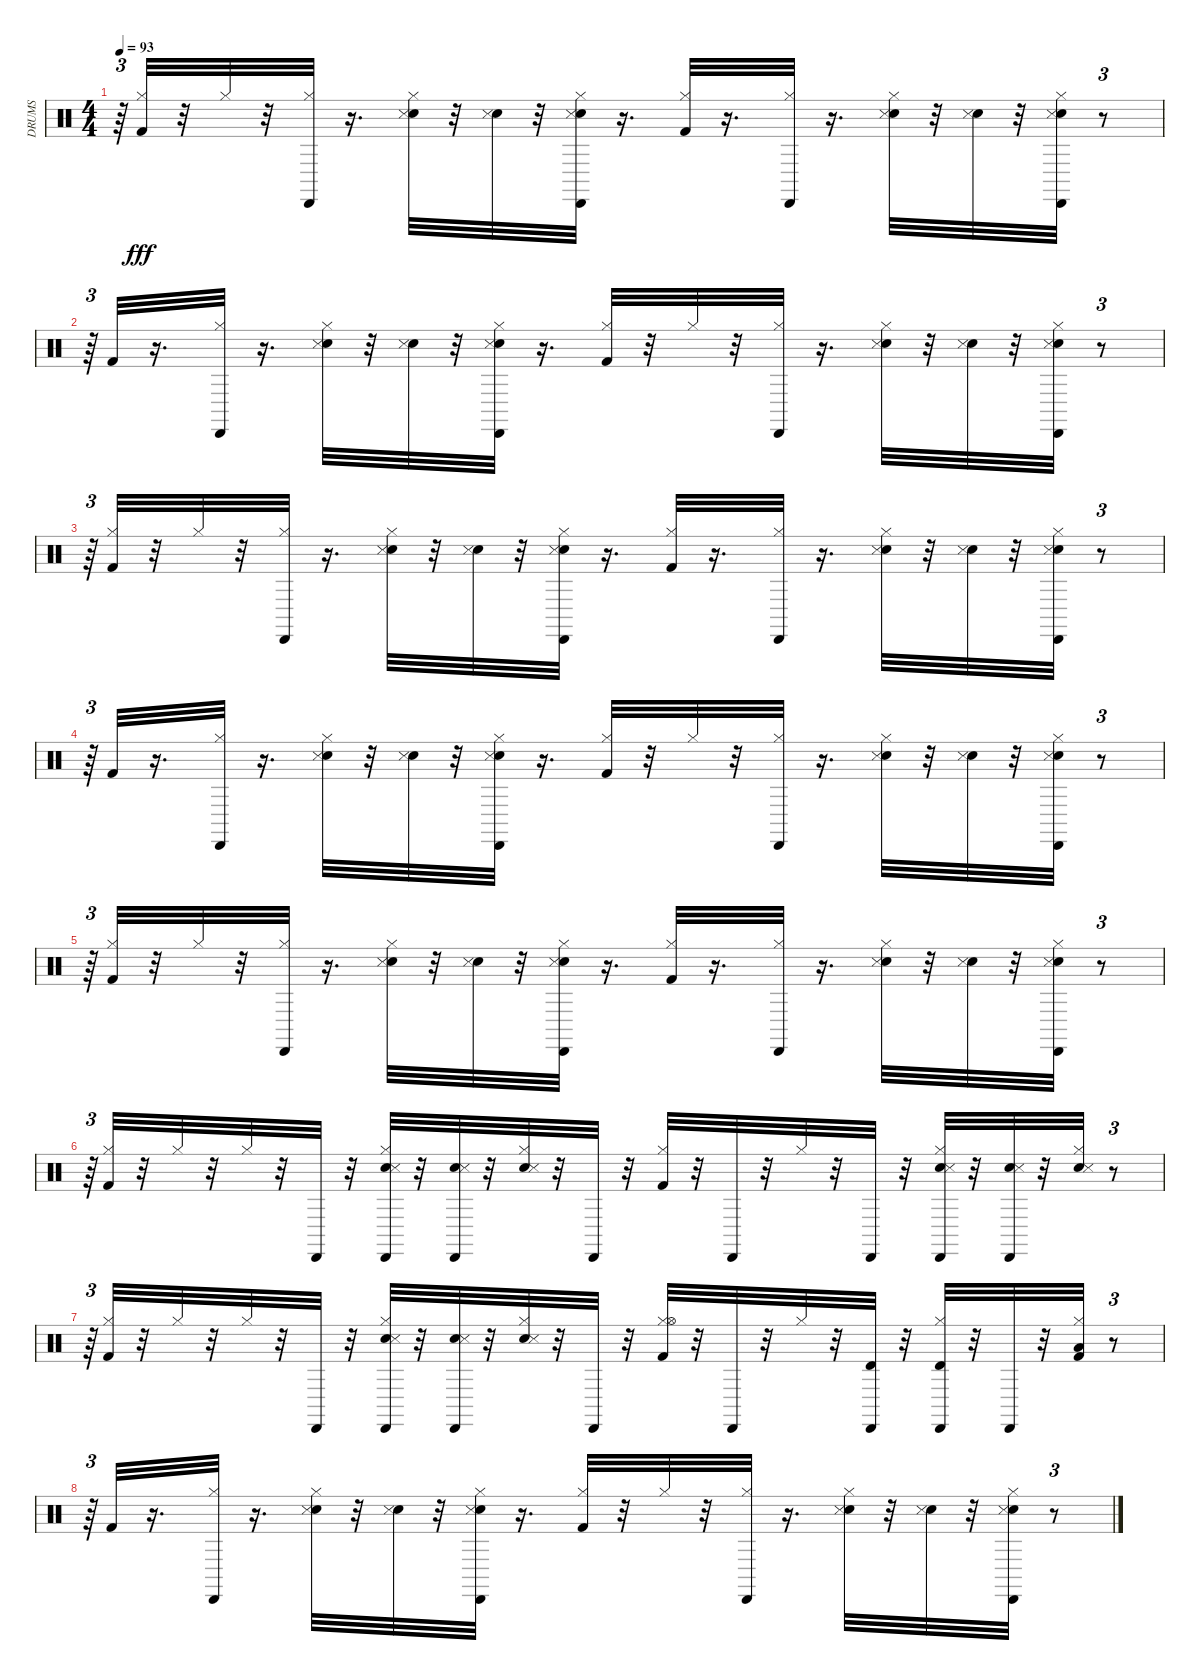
\track ("DRUMS   " "DRUMS   ") {instrument percussion}
\staff {score}
\articulation defaults
\ts (4 4)
\tempo 93
\clef neutral
\ks c
r.64{tu (3 2) dy fff} ("Kick (hit) 2" "Hi-Hat (closed)").32 r.32 "Hi-Hat (closed)".32 r.32 ("Hi-Hat (closed)" "Cabasa (hit)").32 r.16{d} ("Snare (hit) 2" "Hi-Hat (closed)" "Snare (side stick) 3").32 r.32 ("Snare (hit) 2" "Snare (side stick) 3").32 r.32 ("Snare (hit) 2" "Hi-Hat (closed)" "Snare (side stick) 3" "Cabasa (hit)").32 r.16{d} ("Kick (hit) 2" "Hi-Hat (closed)").32 r.16{d} ("Hi-Hat (closed)" "Cabasa (hit)").32 r.16{d} ("Snare (hit) 2" "Hi-Hat (closed)" "Snare (side stick) 3").32 r.32 ("Snare (hit) 2" "Snare (side stick) 3").32 r.32 ("Snare (hit) 2" "Hi-Hat (closed)" "Snare (side stick) 3" "Cabasa (hit)").32 r.8{tu (3 2)} |
r.64{tu (3 2)} "Kick (hit) 2".32 r.16{d} ("Hi-Hat (closed)" "Cabasa (hit)").32 r.16{d} ("Snare (hit) 2" "Hi-Hat (closed)" "Snare (side stick) 3").32 r.32 ("Snare (hit) 2" "Snare (side stick) 3").32 r.32 ("Snare (hit) 2" "Hi-Hat (closed)" "Snare (side stick) 3" "Cabasa (hit)").32 r.16{d} ("Kick (hit) 2" "Hi-Hat (closed)").32 r.32 "Hi-Hat (closed)".32 r.32 ("Hi-Hat (closed)" "Cabasa (hit)").32 r.16{d} ("Snare (hit) 2" "Hi-Hat (closed)" "Snare (side stick) 3").32 r.32 ("Snare (hit) 2" "Snare (side stick) 3").32 r.32 ("Snare (hit) 2" "Hi-Hat (closed)" "Snare (side stick) 3" "Cabasa (hit)").32 r.8{tu (3 2)} |
r.64{tu (3 2)} ("Kick (hit) 2" "Hi-Hat (closed)").32 r.32 "Hi-Hat (closed)".32 r.32 ("Hi-Hat (closed)" "Cabasa (hit)").32 r.16{d} ("Snare (hit) 2" "Hi-Hat (closed)" "Snare (side stick) 3").32 r.32 ("Snare (hit) 2" "Snare (side stick) 3").32 r.32 ("Snare (hit) 2" "Hi-Hat (closed)" "Snare (side stick) 3" "Cabasa (hit)").32 r.16{d} ("Kick (hit) 2" "Hi-Hat (closed)").32 r.16{d} ("Hi-Hat (closed)" "Cabasa (hit)").32 r.16{d} ("Snare (hit) 2" "Hi-Hat (closed)" "Snare (side stick) 3").32 r.32 ("Snare (hit) 2" "Snare (side stick) 3").32 r.32 ("Snare (hit) 2" "Hi-Hat (closed)" "Snare (side stick) 3" "Cabasa (hit)").32 r.8{tu (3 2)} |
r.64{tu (3 2)} "Kick (hit) 2".32 r.16{d} ("Hi-Hat (closed)" "Cabasa (hit)").32 r.16{d} ("Snare (hit) 2" "Hi-Hat (closed)" "Snare (side stick) 3").32 r.32 ("Snare (hit) 2" "Snare (side stick) 3").32 r.32 ("Snare (hit) 2" "Hi-Hat (closed)" "Snare (side stick) 3" "Cabasa (hit)").32 r.16{d} ("Kick (hit) 2" "Hi-Hat (closed)").32 r.32 "Hi-Hat (closed)".32 r.32 ("Hi-Hat (closed)" "Cabasa (hit)").32 r.16{d} ("Snare (hit) 2" "Hi-Hat (closed)" "Snare (side stick) 3").32 r.32 ("Snare (hit) 2" "Snare (side stick) 3").32 r.32 ("Snare (hit) 2" "Hi-Hat (closed)" "Snare (side stick) 3" "Cabasa (hit)").32 r.8{tu (3 2)} |
r.64{tu (3 2)} ("Kick (hit) 2" "Hi-Hat (closed)").32 r.32 "Hi-Hat (closed)".32 r.32 ("Hi-Hat (closed)" "Cabasa (hit)").32 r.16{d} ("Snare (hit) 2" "Hi-Hat (closed)" "Snare (side stick) 3").32 r.32 ("Snare (hit) 2" "Snare (side stick) 3").32 r.32 ("Snare (hit) 2" "Hi-Hat (closed)" "Snare (side stick) 3" "Cabasa (hit)").32 r.16{d} ("Kick (hit) 2" "Hi-Hat (closed)").32 r.16{d} ("Hi-Hat (closed)" "Cabasa (hit)").32 r.16{d} ("Snare (hit) 2" "Hi-Hat (closed)" "Snare (side stick) 3").32 r.32 ("Snare (hit) 2" "Snare (side stick) 3").32 r.32 ("Snare (hit) 2" "Hi-Hat (closed)" "Snare (side stick) 3" "Cabasa (hit)").32 r.8{tu (3 2)} |
r.64{tu (3 2)} ("Kick (hit) 2" "Hi-Hat (closed)").32 r.32 "Hi-Hat (closed)".32 r.32 "Hi-Hat (closed)".32 r.32 "Cabasa (hit)".32 r.32 ("Snare (hit) 2" "Hi-Hat (closed)" "Snare (side stick) 3" "Cabasa (hit)").32 r.32 ("Snare (hit) 2" "Snare (side stick) 3" "Cabasa (hit)").32 r.32 ("Snare (hit) 2" "Hi-Hat (closed)" "Snare (side stick) 3").32 r.32 "Cabasa (hit)".32 r.32 ("Kick (hit) 2" "Hi-Hat (closed)").32 r.32 "Cabasa (hit)".32 r.32 "Hi-Hat (closed)".32 r.32 "Cabasa (hit)".32 r.32 ("Snare (hit) 2" "Hi-Hat (closed)" "Snare (side stick) 3" "Cabasa (hit)").32 r.32 ("Snare (hit) 2" "Snare (side stick) 3" "Cabasa (hit)").32 r.32 ("Snare (hit) 2" "Hi-Hat (closed)" "Snare (side stick) 3").32 r.8{tu (3 2)} |
r.64{tu (3 2)} ("Kick (hit) 2" "Hi-Hat (closed)").32 r.32 "Hi-Hat (closed)".32 r.32 "Hi-Hat (closed)".32 r.32 "Cabasa (hit)".32 r.32 ("Snare (hit) 2" "Hi-Hat (closed)" "Snare (side stick) 3" "Cabasa (hit)").32 r.32 ("Snare (hit) 2" "Snare (side stick) 3" "Cabasa (hit)").32 r.32 ("Snare (hit) 2" "Hi-Hat (closed)" "Snare (side stick) 3").32 r.32 "Cabasa (hit)".32 r.32 ("Kick (hit) 2" "Hi-Hat (closed)" "Hi-Hat (open)").32 r.32 "Cabasa (hit)".32 r.32 "Hi-Hat (closed)".32 r.32 ("Timbale high (hit)" "Cabasa (hit)").32 r.32 ("Hi-Hat (closed)" "Timbale high (hit)" "Cabasa (hit)").32 r.32 "Cabasa (hit)".32 r.32 ("Kick (hit) 2" "Hi-Hat (closed)" "Low Floor Tom (hit)").32 r.8{tu (3 2)} |
r.64{tu (3 2)} "Kick (hit) 2".32 r.16{d} ("Hi-Hat (closed)" "Cabasa (hit)").32 r.16{d} ("Snare (hit) 2" "Hi-Hat (closed)" "Snare (side stick) 3").32 r.32 ("Snare (hit) 2" "Snare (side stick) 3").32 r.32 ("Snare (hit) 2" "Hi-Hat (closed)" "Snare (side stick) 3" "Cabasa (hit)").32 r.16{d} ("Kick (hit) 2" "Hi-Hat (closed)").32 r.32 "Hi-Hat (closed)".32 r.32 ("Hi-Hat (closed)" "Cabasa (hit)").32 r.16{d} ("Snare (hit) 2" "Hi-Hat (closed)" "Snare (side stick) 3").32 r.32 ("Snare (hit) 2" "Snare (side stick) 3").32 r.32 ("Snare (hit) 2" "Hi-Hat (closed)" "Snare (side stick) 3" "Cabasa (hit)").32 r.8{tu (3 2)}
